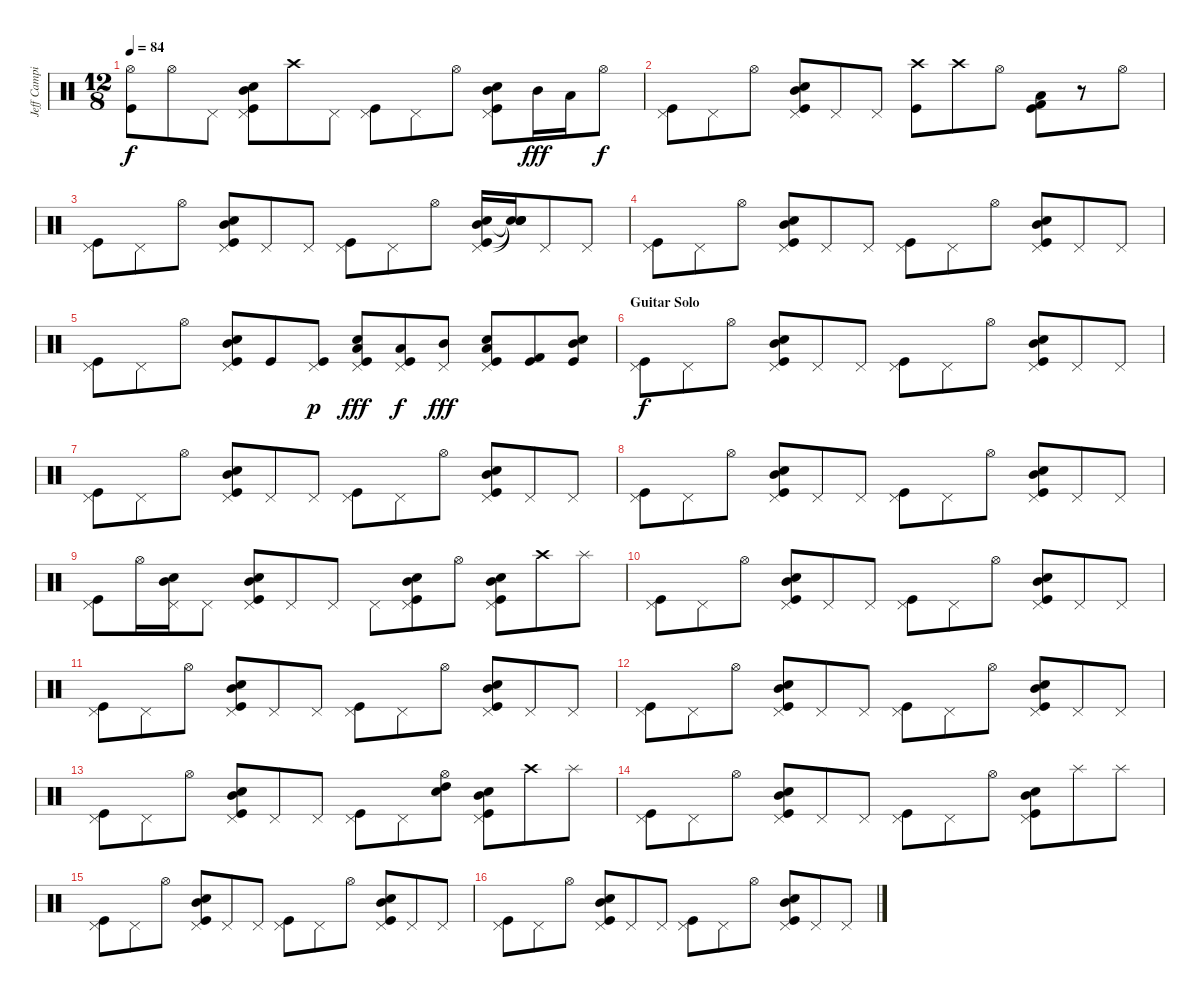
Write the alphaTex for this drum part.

\track ("Jeff Campitelli" "Jeff Campi") {instrument percussion}
\staff {score}
\articulation defaults
\ts (12 8)
\tempo 84
\clef neutral
\ks c
("Hi-Hat (open)" "Kick (hit)").8{dy f} "Hi-Hat (open)".8 "Pedal Hi-Hat (hit)".8 ("Pedal Hi-Hat (hit)" "Snare (hit) 2" "Mid Tom (hit)" "Kick (hit)").8 "Crash high (hit)".8 "Pedal Hi-Hat (hit)".8 ("Pedal Hi-Hat (hit)" "Kick (hit)").8 "Pedal Hi-Hat (hit)".8 "Hi-Hat (open)".8 ("Pedal Hi-Hat (hit)" "Snare (hit) 2" "Mid Tom (hit)" "Kick (hit)").8 "Mid Tom (hit)".16{dy fff} "Low Tom (hit)".16 "Hi-Hat (open)".8{dy f} |
("Pedal Hi-Hat (hit)" "Kick (hit)").8 "Pedal Hi-Hat (hit)".8 "Hi-Hat (open)".8 ("Pedal Hi-Hat (hit)" "Snare (hit) 2" "Mid Tom (hit)" "Kick (hit)").8 "Pedal Hi-Hat (hit)".8 "Pedal Hi-Hat (hit)".8 ("Crash high (hit)" "Kick (hit)").8 "Crash high (hit)".8 "Hi-Hat (open)".8 ("Low Tom (hit)" "Kick (hit) 2" "Kick (hit)").8 r.8 "Hi-Hat (open)".8 |
("Pedal Hi-Hat (hit)" "Kick (hit)").8 "Pedal Hi-Hat (hit)".8 "Hi-Hat (open)".8 ("Pedal Hi-Hat (hit)" "Snare (hit) 2" "Mid Tom (hit)" "Kick (hit)").8 "Pedal Hi-Hat (hit)".8 "Pedal Hi-Hat (hit)".8 ("Pedal Hi-Hat (hit)" "Kick (hit)").8 "Pedal Hi-Hat (hit)".8 "Hi-Hat (open)".8 ("Pedal Hi-Hat (hit)" "Snare (hit) 2" "Mid Tom (hit)" "Kick (hit)").16 ("Snare (hit)"{t} "Snare (hit) 2" "Snare (hit)"{t} "Snare (hit)"{t}).16 "Pedal Hi-Hat (hit)".8 "Pedal Hi-Hat (hit)".8 |
("Pedal Hi-Hat (hit)" "Kick (hit)").8 "Pedal Hi-Hat (hit)".8 "Hi-Hat (open)".8 ("Pedal Hi-Hat (hit)" "Snare (hit) 2" "Mid Tom (hit)" "Kick (hit)").8 "Pedal Hi-Hat (hit)".8 "Pedal Hi-Hat (hit)".8 ("Pedal Hi-Hat (hit)" "Kick (hit)").8 "Pedal Hi-Hat (hit)".8 "Hi-Hat (open)".8 ("Pedal Hi-Hat (hit)" "Snare (hit) 2" "Mid Tom (hit)" "Kick (hit)").8 "Pedal Hi-Hat (hit)".8 "Pedal Hi-Hat (hit)".8 |
("Pedal Hi-Hat (hit)" "Kick (hit)").8 "Pedal Hi-Hat (hit)".8 "Hi-Hat (open)".8 ("Pedal Hi-Hat (hit)" "Snare (hit) 2" "Mid Tom (hit)" "Kick (hit)").8 "Kick (hit)".8 ("Pedal Hi-Hat (hit)" "Kick (hit)").8{dy p} ("Pedal Hi-Hat (hit)" "Snare (hit) 2" "Low Tom (hit)" "Kick (hit)").8{dy fff} ("Pedal Hi-Hat (hit)" "Low Tom (hit)" "Kick (hit)").8{dy f} ("Pedal Hi-Hat (hit)" "Mid Tom (hit)").8{dy fff} ("Pedal Hi-Hat (hit)" "Snare (hit) 2" "Low Tom (hit)" "Kick (hit)").8 ("Kick (hit) 2" "Kick (hit)").8 ("Snare (hit) 2" "Mid Tom (hit)" "Kick (hit)").8 |
\section ("" "Guitar Solo")
("Pedal Hi-Hat (hit)" "Kick (hit)").8{dy f} "Pedal Hi-Hat (hit)".8 "Hi-Hat (open)".8 ("Pedal Hi-Hat (hit)" "Snare (hit) 2" "Mid Tom (hit)" "Kick (hit)").8 "Pedal Hi-Hat (hit)".8 "Pedal Hi-Hat (hit)".8 ("Pedal Hi-Hat (hit)" "Kick (hit)").8 "Pedal Hi-Hat (hit)".8 "Hi-Hat (open)".8 ("Pedal Hi-Hat (hit)" "Snare (hit) 2" "Mid Tom (hit)" "Kick (hit)").8 "Pedal Hi-Hat (hit)".8 "Pedal Hi-Hat (hit)".8 |
("Pedal Hi-Hat (hit)" "Kick (hit)").8 "Pedal Hi-Hat (hit)".8 "Hi-Hat (open)".8 ("Pedal Hi-Hat (hit)" "Snare (hit) 2" "Mid Tom (hit)" "Kick (hit)").8 "Pedal Hi-Hat (hit)".8 "Pedal Hi-Hat (hit)".8 ("Pedal Hi-Hat (hit)" "Kick (hit)").8 "Pedal Hi-Hat (hit)".8 "Hi-Hat (open)".8 ("Pedal Hi-Hat (hit)" "Snare (hit) 2" "Mid Tom (hit)" "Kick (hit)").8 "Pedal Hi-Hat (hit)".8 "Pedal Hi-Hat (hit)".8 |
("Pedal Hi-Hat (hit)" "Kick (hit)").8 "Pedal Hi-Hat (hit)".8 "Hi-Hat (open)".8 ("Pedal Hi-Hat (hit)" "Snare (hit) 2" "Mid Tom (hit)" "Kick (hit)").8 "Pedal Hi-Hat (hit)".8 "Pedal Hi-Hat (hit)".8 ("Pedal Hi-Hat (hit)" "Kick (hit)").8 "Pedal Hi-Hat (hit)".8 "Hi-Hat (open)".8 ("Pedal Hi-Hat (hit)" "Snare (hit) 2" "Mid Tom (hit)" "Kick (hit)").8 "Pedal Hi-Hat (hit)".8 "Pedal Hi-Hat (hit)".8 |
("Pedal Hi-Hat (hit)" "Kick (hit)").8 "Hi-Hat (open)".16 ("Pedal Hi-Hat (hit)" "Snare (hit) 2" "Mid Tom (hit)").16 "Pedal Hi-Hat (hit)".8 ("Pedal Hi-Hat (hit)" "Snare (hit) 2" "Mid Tom (hit)" "Kick (hit)").8 "Pedal Hi-Hat (hit)".8 "Pedal Hi-Hat (hit)".8 "Pedal Hi-Hat (hit)".8 ("Pedal Hi-Hat (hit)" "Snare (hit) 2" "Mid Tom (hit)" "Kick (hit)").8 "Hi-Hat (open)".8 ("Pedal Hi-Hat (hit)" "Snare (hit) 2" "Mid Tom (hit)" "Kick (hit)").8 "Crash high (hit)".8 "Splash (hit)".8 |
("Pedal Hi-Hat (hit)" "Kick (hit)").8 "Pedal Hi-Hat (hit)".8 "Hi-Hat (open)".8 ("Pedal Hi-Hat (hit)" "Snare (hit) 2" "Mid Tom (hit)" "Kick (hit)").8 "Pedal Hi-Hat (hit)".8 "Pedal Hi-Hat (hit)".8 ("Pedal Hi-Hat (hit)" "Kick (hit)").8 "Pedal Hi-Hat (hit)".8 "Hi-Hat (open)".8 ("Pedal Hi-Hat (hit)" "Snare (hit) 2" "Mid Tom (hit)" "Kick (hit)").8 "Pedal Hi-Hat (hit)".8 "Pedal Hi-Hat (hit)".8 |
("Pedal Hi-Hat (hit)" "Kick (hit)").8 "Pedal Hi-Hat (hit)".8 "Hi-Hat (open)".8 ("Pedal Hi-Hat (hit)" "Snare (hit) 2" "Mid Tom (hit)" "Kick (hit)").8 "Pedal Hi-Hat (hit)".8 "Pedal Hi-Hat (hit)".8 ("Pedal Hi-Hat (hit)" "Kick (hit)").8 "Pedal Hi-Hat (hit)".8 "Hi-Hat (open)".8 ("Pedal Hi-Hat (hit)" "Snare (hit) 2" "Mid Tom (hit)" "Kick (hit)").8 "Pedal Hi-Hat (hit)".8 "Pedal Hi-Hat (hit)".8 |
("Pedal Hi-Hat (hit)" "Kick (hit)").8 "Pedal Hi-Hat (hit)".8 "Hi-Hat (open)".8 ("Pedal Hi-Hat (hit)" "Snare (hit) 2" "Mid Tom (hit)" "Kick (hit)").8 "Pedal Hi-Hat (hit)".8 "Pedal Hi-Hat (hit)".8 ("Pedal Hi-Hat (hit)" "Kick (hit)").8 "Pedal Hi-Hat (hit)".8 "Hi-Hat (open)".8 ("Pedal Hi-Hat (hit)" "Snare (hit) 2" "Mid Tom (hit)" "Kick (hit)").8 "Pedal Hi-Hat (hit)".8 "Pedal Hi-Hat (hit)".8 |
("Pedal Hi-Hat (hit)" "Kick (hit)").8 "Pedal Hi-Hat (hit)".8 "Hi-Hat (open)".8 ("Pedal Hi-Hat (hit)" "Snare (hit) 2" "Mid Tom (hit)" "Kick (hit)").8 "Pedal Hi-Hat (hit)".8 "Pedal Hi-Hat (hit)".8 ("Pedal Hi-Hat (hit)" "Kick (hit)").8 "Pedal Hi-Hat (hit)".8 ("Hi-Hat (open)" "Snare (hit) 2" "High Tom (hit)").8 ("Pedal Hi-Hat (hit)" "Snare (hit) 2" "Mid Tom (hit)" "Kick (hit)").8 "Crash high (hit)".8 "Splash (hit)".8 |
("Pedal Hi-Hat (hit)" "Kick (hit)").8 "Pedal Hi-Hat (hit)".8 "Hi-Hat (open)".8 ("Pedal Hi-Hat (hit)" "Snare (hit) 2" "Mid Tom (hit)" "Kick (hit)").8 "Pedal Hi-Hat (hit)".8 "Pedal Hi-Hat (hit)".8 ("Pedal Hi-Hat (hit)" "Kick (hit)").8 "Pedal Hi-Hat (hit)".8 "Hi-Hat (open)".8 ("Pedal Hi-Hat (hit)" "Snare (hit) 2" "Mid Tom (hit)" "Kick (hit)").8 "Splash (hit)".8 "Splash (hit)".8 |
("Pedal Hi-Hat (hit)" "Kick (hit)").8 "Pedal Hi-Hat (hit)".8 "Hi-Hat (open)".8 ("Pedal Hi-Hat (hit)" "Snare (hit) 2" "Mid Tom (hit)" "Kick (hit)").8 "Pedal Hi-Hat (hit)".8 "Pedal Hi-Hat (hit)".8 ("Pedal Hi-Hat (hit)" "Kick (hit)").8 "Pedal Hi-Hat (hit)".8 "Hi-Hat (open)".8 ("Pedal Hi-Hat (hit)" "Snare (hit) 2" "Mid Tom (hit)" "Kick (hit)").8 "Pedal Hi-Hat (hit)".8 "Pedal Hi-Hat (hit)".8 |
("Pedal Hi-Hat (hit)" "Kick (hit)").8 "Pedal Hi-Hat (hit)".8 "Hi-Hat (open)".8 ("Pedal Hi-Hat (hit)" "Snare (hit) 2" "Mid Tom (hit)" "Kick (hit)").8 "Pedal Hi-Hat (hit)".8 "Pedal Hi-Hat (hit)".8 ("Pedal Hi-Hat (hit)" "Kick (hit)").8 "Pedal Hi-Hat (hit)".8 "Hi-Hat (open)".8 ("Pedal Hi-Hat (hit)" "Snare (hit) 2" "Mid Tom (hit)" "Kick (hit)").8 "Pedal Hi-Hat (hit)".8 "Pedal Hi-Hat (hit)".8
